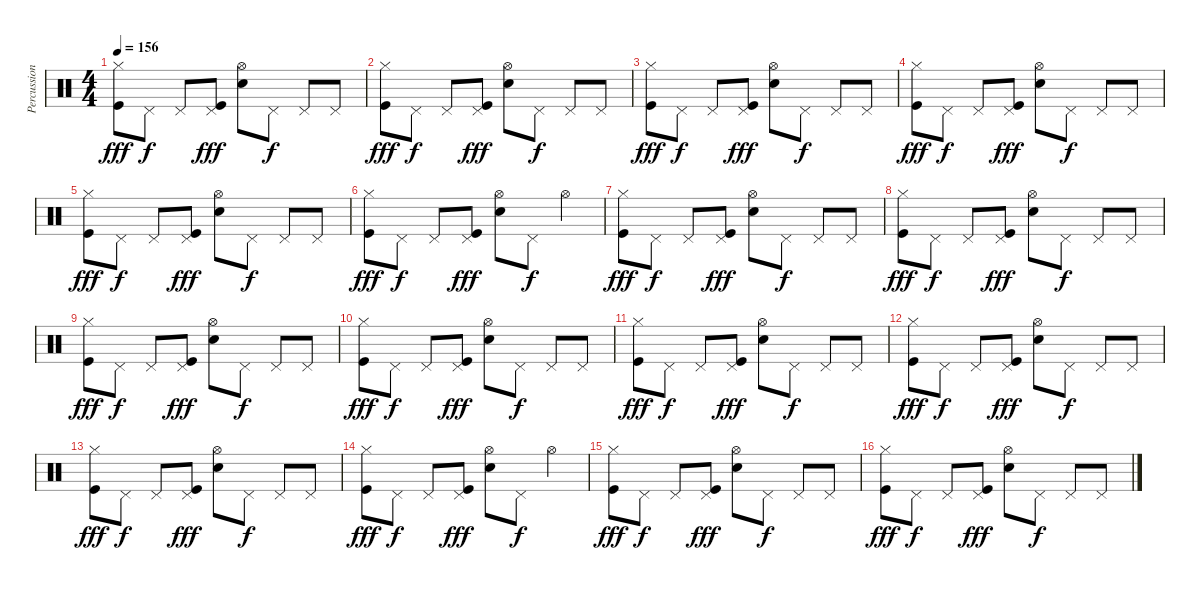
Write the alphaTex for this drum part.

\track ("Percussion" "Percussion") {instrument percussion}
\staff {score}
\articulation defaults
\ts (4 4)
\tempo 156
\clef neutral
\ks c
("Hi-Hat (closed)" "Kick (hit)").8{dy fff} "Pedal Hi-Hat (hit)".8{dy f} "Pedal Hi-Hat (hit)".8 ("Pedal Hi-Hat (hit)" "Kick (hit)").8{dy fff} ("Hi-Hat (open)" "Snare (hit) 2").8 "Pedal Hi-Hat (hit)".8{dy f} "Pedal Hi-Hat (hit)".8 "Pedal Hi-Hat (hit)".8 |
("Hi-Hat (closed)" "Kick (hit)").8{dy fff} "Pedal Hi-Hat (hit)".8{dy f} "Pedal Hi-Hat (hit)".8 ("Pedal Hi-Hat (hit)" "Kick (hit)").8{dy fff} ("Hi-Hat (open)" "Snare (hit) 2").8 "Pedal Hi-Hat (hit)".8{dy f} "Pedal Hi-Hat (hit)".8 "Pedal Hi-Hat (hit)".8 |
("Hi-Hat (closed)" "Kick (hit)").8{dy fff} "Pedal Hi-Hat (hit)".8{dy f} "Pedal Hi-Hat (hit)".8 ("Pedal Hi-Hat (hit)" "Kick (hit)").8{dy fff} ("Hi-Hat (open)" "Snare (hit) 2").8 "Pedal Hi-Hat (hit)".8{dy f} "Pedal Hi-Hat (hit)".8 "Pedal Hi-Hat (hit)".8 |
("Hi-Hat (closed)" "Kick (hit)").8{dy fff} "Pedal Hi-Hat (hit)".8{dy f} "Pedal Hi-Hat (hit)".8 ("Pedal Hi-Hat (hit)" "Kick (hit)").8{dy fff} ("Hi-Hat (open)" "Snare (hit) 2").8 "Pedal Hi-Hat (hit)".8{dy f} "Pedal Hi-Hat (hit)".8 "Pedal Hi-Hat (hit)".8 |
("Hi-Hat (closed)" "Kick (hit)").8{dy fff} "Pedal Hi-Hat (hit)".8{dy f} "Pedal Hi-Hat (hit)".8 ("Pedal Hi-Hat (hit)" "Kick (hit)").8{dy fff} ("Hi-Hat (open)" "Snare (hit) 2").8 "Pedal Hi-Hat (hit)".8{dy f} "Pedal Hi-Hat (hit)".8 "Pedal Hi-Hat (hit)".8 |
("Hi-Hat (closed)" "Kick (hit)").8{dy fff} "Pedal Hi-Hat (hit)".8{dy f} "Pedal Hi-Hat (hit)".8 ("Pedal Hi-Hat (hit)" "Kick (hit)").8{dy fff} ("Hi-Hat (open)" "Snare (hit) 2").8 "Pedal Hi-Hat (hit)".8{dy f} "Hi-Hat (open)".4 |
("Hi-Hat (closed)" "Kick (hit)").8{dy fff} "Pedal Hi-Hat (hit)".8{dy f} "Pedal Hi-Hat (hit)".8 ("Pedal Hi-Hat (hit)" "Kick (hit)").8{dy fff} ("Hi-Hat (open)" "Snare (hit) 2").8 "Pedal Hi-Hat (hit)".8{dy f} "Pedal Hi-Hat (hit)".8 "Pedal Hi-Hat (hit)".8 |
("Hi-Hat (closed)" "Kick (hit)").8{dy fff} "Pedal Hi-Hat (hit)".8{dy f} "Pedal Hi-Hat (hit)".8 ("Pedal Hi-Hat (hit)" "Kick (hit)").8{dy fff} ("Hi-Hat (open)" "Snare (hit) 2").8 "Pedal Hi-Hat (hit)".8{dy f} "Pedal Hi-Hat (hit)".8 "Pedal Hi-Hat (hit)".8 |
("Hi-Hat (closed)" "Kick (hit)").8{dy fff} "Pedal Hi-Hat (hit)".8{dy f} "Pedal Hi-Hat (hit)".8 ("Pedal Hi-Hat (hit)" "Kick (hit)").8{dy fff} ("Hi-Hat (open)" "Snare (hit) 2").8 "Pedal Hi-Hat (hit)".8{dy f} "Pedal Hi-Hat (hit)".8 "Pedal Hi-Hat (hit)".8 |
("Hi-Hat (closed)" "Kick (hit)").8{dy fff} "Pedal Hi-Hat (hit)".8{dy f} "Pedal Hi-Hat (hit)".8 ("Pedal Hi-Hat (hit)" "Kick (hit)").8{dy fff} ("Hi-Hat (open)" "Snare (hit) 2").8 "Pedal Hi-Hat (hit)".8{dy f} "Pedal Hi-Hat (hit)".8 "Pedal Hi-Hat (hit)".8 |
("Hi-Hat (closed)" "Kick (hit)").8{dy fff} "Pedal Hi-Hat (hit)".8{dy f} "Pedal Hi-Hat (hit)".8 ("Pedal Hi-Hat (hit)" "Kick (hit)").8{dy fff} ("Hi-Hat (open)" "Snare (hit) 2").8 "Pedal Hi-Hat (hit)".8{dy f} "Pedal Hi-Hat (hit)".8 "Pedal Hi-Hat (hit)".8 |
("Hi-Hat (closed)" "Kick (hit)").8{dy fff} "Pedal Hi-Hat (hit)".8{dy f} "Pedal Hi-Hat (hit)".8 ("Pedal Hi-Hat (hit)" "Kick (hit)").8{dy fff} ("Hi-Hat (open)" "Snare (hit) 2").8 "Pedal Hi-Hat (hit)".8{dy f} "Pedal Hi-Hat (hit)".8 "Pedal Hi-Hat (hit)".8 |
("Hi-Hat (closed)" "Kick (hit)").8{dy fff} "Pedal Hi-Hat (hit)".8{dy f} "Pedal Hi-Hat (hit)".8 ("Pedal Hi-Hat (hit)" "Kick (hit)").8{dy fff} ("Hi-Hat (open)" "Snare (hit) 2").8 "Pedal Hi-Hat (hit)".8{dy f} "Pedal Hi-Hat (hit)".8 "Pedal Hi-Hat (hit)".8 |
("Hi-Hat (closed)" "Kick (hit)").8{dy fff} "Pedal Hi-Hat (hit)".8{dy f} "Pedal Hi-Hat (hit)".8 ("Pedal Hi-Hat (hit)" "Kick (hit)").8{dy fff} ("Hi-Hat (open)" "Snare (hit) 2").8 "Pedal Hi-Hat (hit)".8{dy f} "Hi-Hat (open)".4 |
("Hi-Hat (closed)" "Kick (hit)").8{dy fff} "Pedal Hi-Hat (hit)".8{dy f} "Pedal Hi-Hat (hit)".8 ("Pedal Hi-Hat (hit)" "Kick (hit)").8{dy fff} ("Hi-Hat (open)" "Snare (hit) 2").8 "Pedal Hi-Hat (hit)".8{dy f} "Pedal Hi-Hat (hit)".8 "Pedal Hi-Hat (hit)".8 |
("Hi-Hat (closed)" "Kick (hit)").8{dy fff} "Pedal Hi-Hat (hit)".8{dy f} "Pedal Hi-Hat (hit)".8 ("Pedal Hi-Hat (hit)" "Kick (hit)").8{dy fff} ("Hi-Hat (open)" "Snare (hit) 2").8 "Pedal Hi-Hat (hit)".8{dy f} "Pedal Hi-Hat (hit)".8 "Pedal Hi-Hat (hit)".8
